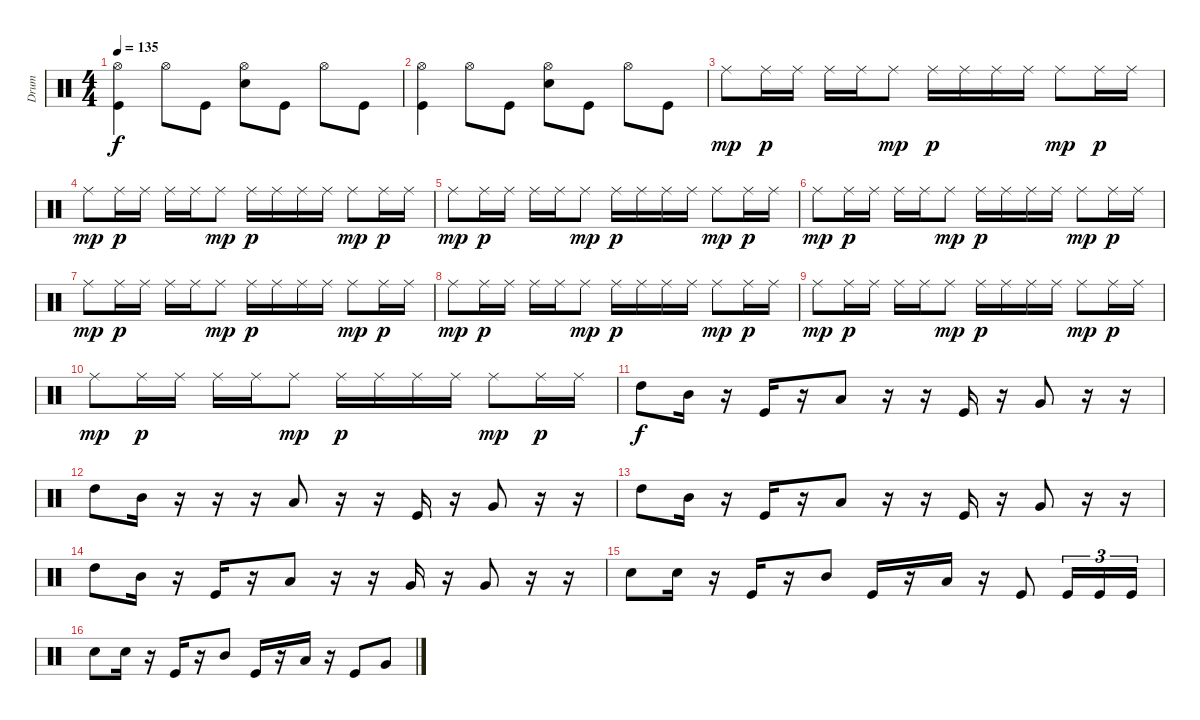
\track ("Drum" "Drum") {instrument percussion}
\staff {score}
\articulation defaults
\ts (4 4)
\tempo 135
\clef neutral
\ks c
("Kick (hit)" "Hi-Hat (open)").4{dy f} "Hi-Hat (open)".8 "Kick (hit)".8 ("Electric Snare (hit)" "Hi-Hat (open)").8 "Kick (hit)".8 "Hi-Hat (open)".8 "Kick (hit)".8 |
("Kick (hit)" "Hi-Hat (open)").4 "Hi-Hat (open)".8 "Kick (hit)".8 ("Electric Snare (hit)" "Hi-Hat (open)").8 "Kick (hit)".8 "Hi-Hat (open)".8 "Kick (hit)".8 |
"Ride (middle)".8{dy mp} "Ride (middle)".16{dy p} "Ride (middle)".16 "Ride (middle)".16 "Ride (middle)".16 "Ride (middle)".8{dy mp} "Ride (middle)".16{dy p} "Ride (middle)".16 "Ride (middle)".16 "Ride (middle)".16 "Ride (middle)".8{dy mp} "Ride (middle)".16{dy p} "Ride (middle)".16 |
"Ride (middle)".8{dy mp} "Ride (middle)".16{dy p} "Ride (middle)".16 "Ride (middle)".16 "Ride (middle)".16 "Ride (middle)".8{dy mp} "Ride (middle)".16{dy p} "Ride (middle)".16 "Ride (middle)".16 "Ride (middle)".16 "Ride (middle)".8{dy mp} "Ride (middle)".16{dy p} "Ride (middle)".16 |
"Ride (middle)".8{dy mp} "Ride (middle)".16{dy p} "Ride (middle)".16 "Ride (middle)".16 "Ride (middle)".16 "Ride (middle)".8{dy mp} "Ride (middle)".16{dy p} "Ride (middle)".16 "Ride (middle)".16 "Ride (middle)".16 "Ride (middle)".8{dy mp} "Ride (middle)".16{dy p} "Ride (middle)".16 |
"Ride (middle)".8{dy mp} "Ride (middle)".16{dy p} "Ride (middle)".16 "Ride (middle)".16 "Ride (middle)".16 "Ride (middle)".8{dy mp} "Ride (middle)".16{dy p} "Ride (middle)".16 "Ride (middle)".16 "Ride (middle)".16 "Ride (middle)".8{dy mp} "Ride (middle)".16{dy p} "Ride (middle)".16 |
"Ride (middle)".8{dy mp} "Ride (middle)".16{dy p} "Ride (middle)".16 "Ride (middle)".16 "Ride (middle)".16 "Ride (middle)".8{dy mp} "Ride (middle)".16{dy p} "Ride (middle)".16 "Ride (middle)".16 "Ride (middle)".16 "Ride (middle)".8{dy mp} "Ride (middle)".16{dy p} "Ride (middle)".16 |
"Ride (middle)".8{dy mp} "Ride (middle)".16{dy p} "Ride (middle)".16 "Ride (middle)".16 "Ride (middle)".16 "Ride (middle)".8{dy mp} "Ride (middle)".16{dy p} "Ride (middle)".16 "Ride (middle)".16 "Ride (middle)".16 "Ride (middle)".8{dy mp} "Ride (middle)".16{dy p} "Ride (middle)".16 |
"Ride (middle)".8{dy mp} "Ride (middle)".16{dy p} "Ride (middle)".16 "Ride (middle)".16 "Ride (middle)".16 "Ride (middle)".8{dy mp} "Ride (middle)".16{dy p} "Ride (middle)".16 "Ride (middle)".16 "Ride (middle)".16 "Ride (middle)".8{dy mp} "Ride (middle)".16{dy p} "Ride (middle)".16 |
"Ride (middle)".8{dy mp} "Ride (middle)".16{dy p} "Ride (middle)".16 "Ride (middle)".16 "Ride (middle)".16 "Ride (middle)".8{dy mp} "Ride (middle)".16{dy p} "Ride (middle)".16 "Ride (middle)".16 "Ride (middle)".16 "Ride (middle)".8{dy mp} "Ride (middle)".16{dy p} "Ride (middle)".16 |
"High Tom (hit)".8{dy f} "Mid Tom (hit)".16 r.16 "Kick (hit)".16 r.16 "Low Tom (hit)".8 r.16 r.16 "Kick (hit)".16 r.16 "Very Low Tom (hit)".8 r.16 r.16 |
"High Tom (hit)".8 "Mid Tom (hit)".16 r.16 r.16 r.16 "Low Tom (hit)".8 r.16 r.16 "Kick (hit)".16 r.16 "Very Low Tom (hit)".8 r.16 r.16 |
"High Tom (hit)".8 "Mid Tom (hit)".16 r.16 "Kick (hit)".16 r.16 "Low Tom (hit)".8 r.16 r.16 "Kick (hit)".16 r.16 "Very Low Tom (hit)".8 r.16 r.16 |
"High Tom (hit)".8 "Mid Tom (hit)".16 r.16 "Kick (hit)".16 r.16 "Low Tom (hit)".8 r.16 r.16 "Very Low Tom (hit)".16 r.16 "Very Low Tom (hit)".8 r.16 r.16 |
"Electric Snare (hit)".8 "Electric Snare (hit)".16 r.16 "Kick (hit)".16 r.16 "Mid Tom (hit)".8 "Kick (hit)".16 r.16 "Low Tom (hit)".16 r.16 "Kick (hit)".8 "Kick (hit)".16{tu (3 2)} "Kick (hit)".16{tu (3 2)} "Kick (hit)".16{tu (3 2)} |
"Electric Snare (hit)".8 "Electric Snare (hit)".16 r.16 "Kick (hit)".16 r.16 "Mid Tom (hit)".8 "Kick (hit)".16 r.16 "Low Tom (hit)".16 r.16 "Kick (hit)".8 "Very Low Tom (hit)".8
